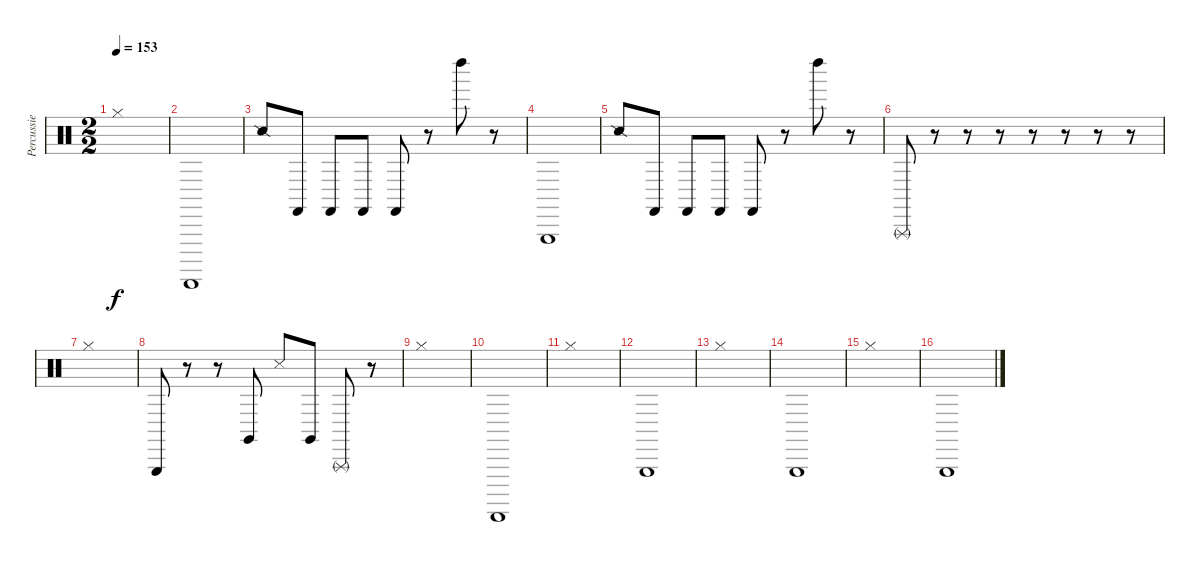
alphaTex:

\track ("Percussie" "Percussie") {instrument percussion}
\staff {score}
\articulation defaults
\ts (2 2)
\tempo 153
\clef neutral
\ks c "Hi-Hat (closed)".1{dy f}
|
"Guiro (scrap-return)".1 |
"Snare (side stick) 2".8 "Castanets (hit)".8 "Castanets (hit)".8 "Castanets (hit)".8 "Castanets (hit)".8 r.8 "Left Maraca (hit)".8 r.8 |
"Triangle (hit)".1 |
"Snare (side stick) 2".8 "Castanets (hit)".8 "Castanets (hit)".8 "Castanets (hit)".8 "Castanets (hit)".8 r.8 "Left Maraca (hit)".8 r.8 |
"Triangle (rnute)".8 r.8 r.8 r.8 r.8 r.8 r.8 r.8 |
"Hi-Hat (closed)".1 |
"Triangle (hit)".8 r.8 r.8 "Claves (hit)".8 "Metronome (hit)".8 "Claves (hit)".8 "Triangle (rnute)".8 r.8 |
"Hi-Hat (closed)".1 |
"Guiro (scrap-return)".1 |
"Hi-Hat (closed)".1 |
"Triangle (hit)".1 |
"Hi-Hat (closed)".1 |
"Triangle (hit)".1 |
"Hi-Hat (closed)".1 |
"Triangle (hit)".1
